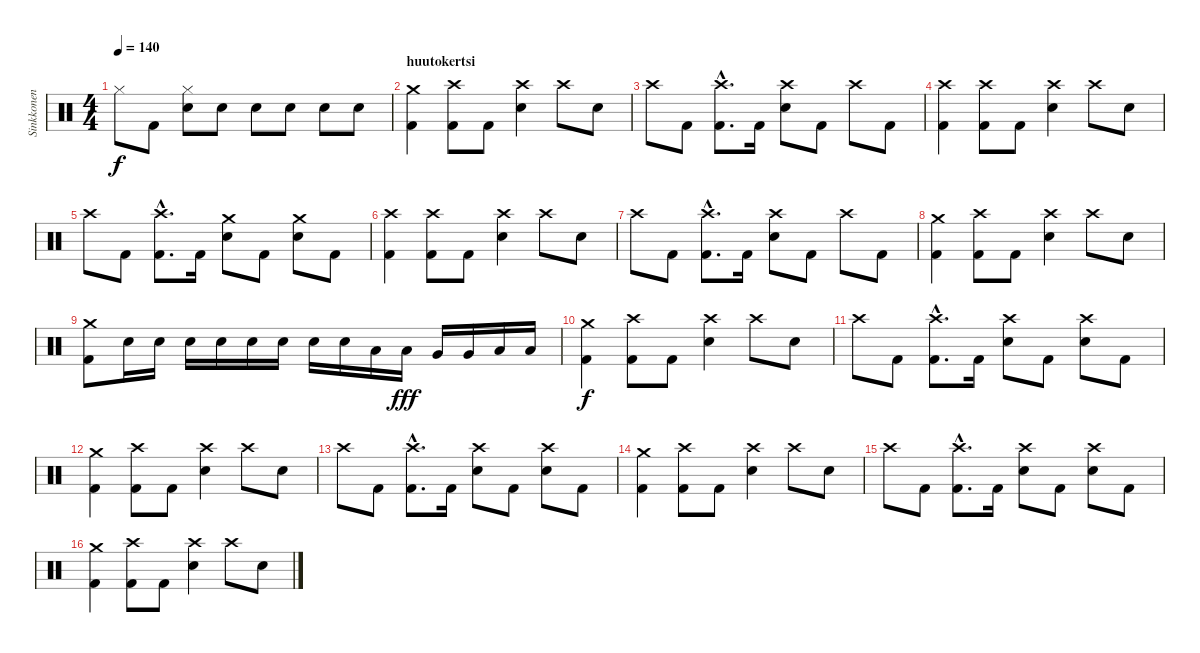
\track ("Sinkkonen" "Sinkkonen") {instrument percussion}
\staff {score}
\articulation defaults
\ts (4 4)
\tempo 140
\clef neutral
\ks c "Hi-Hat (closed)".8{dy f} "Kick (hit) 2".8
("Hi-Hat (closed)" "Snare (hit) 2").8 "Snare (hit) 2".8 "Snare (hit) 2".8 "Snare (hit) 2".8 "Snare (hit) 2".8 "Snare (hit) 2".8 |
\section ("" "huutokertsi")
("Kick (hit) 2" "Crash medium (hit)").4 ("Kick (hit) 2" "Crash high (hit)").8 "Kick (hit) 2".8 ("Crash high (hit)" "Snare (hit) 2").4 "Crash high (hit)".8 "Snare (hit) 2".8 |
"Crash high (hit)".8 "Kick (hit) 2".8 ("Kick (hit) 2"{hac} "Crash high (hit)"{hac}).8{d} "Kick (hit) 2".16 ("Crash high (hit)" "Snare (hit) 2").8 "Kick (hit) 2".8 "Crash high (hit)".8 "Kick (hit) 2".8 |
("Kick (hit) 2" "Crash high (hit)").4 ("Kick (hit) 2" "Crash high (hit)").8 "Kick (hit) 2".8 ("Crash high (hit)" "Snare (hit) 2").4 "Crash high (hit)".8 "Snare (hit) 2".8 |
"Crash high (hit)".8 "Kick (hit) 2".8 ("Kick (hit) 2"{hac} "Crash high (hit)"{hac}).8{d} "Kick (hit) 2".16 ("Crash medium (hit)" "Snare (hit) 2").8 "Kick (hit) 2".8 ("Crash medium (hit)" "Snare (hit) 2").8 "Kick (hit) 2".8 |
("Kick (hit) 2" "Crash high (hit)").4 ("Kick (hit) 2" "Crash high (hit)").8 "Kick (hit) 2".8 ("Crash high (hit)" "Snare (hit) 2").4 "Crash high (hit)".8 "Snare (hit) 2".8 |
"Crash high (hit)".8 "Kick (hit) 2".8 ("Kick (hit) 2"{hac} "Crash high (hit)"{hac}).8{d} "Kick (hit) 2".16 ("Crash high (hit)" "Snare (hit) 2").8 "Kick (hit) 2".8 "Crash high (hit)".8 "Kick (hit) 2".8 |
("Kick (hit) 2" "Crash medium (hit)").4 ("Kick (hit) 2" "Crash high (hit)").8 "Kick (hit) 2".8 ("Crash high (hit)" "Snare (hit) 2").4 "Crash high (hit)".8 "Snare (hit) 2".8 |
("Kick (hit) 2" "Crash medium (hit)").8 "Snare (hit) 2".16 "Snare (hit) 2".16 "Snare (hit) 2".16 "Snare (hit) 2".16 "Snare (hit) 2".16 "Snare (hit) 2".16 "Snare (hit) 2".16 "Snare (hit) 2".16 "Low Tom (hit)".16 "Low Tom (hit)".16{dy fff} "Very Low Tom (hit)".16 "Very Low Tom (hit)".16 "Low Floor Tom (hit)".16 "Low Floor Tom (hit)".16 |
("Kick (hit) 2" "Crash medium (hit)").4{dy f} ("Kick (hit) 2" "Crash high (hit)").8 "Kick (hit) 2".8 ("Crash high (hit)" "Snare (hit) 2").4 "Crash high (hit)".8 "Snare (hit) 2".8 |
"Crash high (hit)".8 "Kick (hit) 2".8 ("Kick (hit) 2"{hac} "Crash high (hit)"{hac}).8{d} "Kick (hit) 2".16 ("Crash high (hit)" "Snare (hit) 2").8 "Kick (hit) 2".8 ("Crash high (hit)" "Snare (hit) 2").8 "Kick (hit) 2".8 |
("Kick (hit) 2" "Crash medium (hit)").4 ("Kick (hit) 2" "Crash high (hit)").8 "Kick (hit) 2".8 ("Crash high (hit)" "Snare (hit) 2").4 "Crash high (hit)".8 "Snare (hit) 2".8 |
"Crash high (hit)".8 "Kick (hit) 2".8 ("Kick (hit) 2"{hac} "Crash high (hit)"{hac}).8{d} "Kick (hit) 2".16 ("Crash high (hit)" "Snare (hit) 2").8 "Kick (hit) 2".8 ("Crash high (hit)" "Snare (hit) 2").8 "Kick (hit) 2".8 |
("Kick (hit) 2" "Crash medium (hit)").4 ("Kick (hit) 2" "Crash high (hit)").8 "Kick (hit) 2".8 ("Crash high (hit)" "Snare (hit) 2").4 "Crash high (hit)".8 "Snare (hit) 2".8 |
"Crash high (hit)".8 "Kick (hit) 2".8 ("Kick (hit) 2"{hac} "Crash high (hit)"{hac}).8{d} "Kick (hit) 2".16 ("Crash high (hit)" "Snare (hit) 2").8 "Kick (hit) 2".8 ("Crash high (hit)" "Snare (hit) 2").8 "Kick (hit) 2".8 |
("Kick (hit) 2" "Crash medium (hit)").4 ("Kick (hit) 2" "Crash high (hit)").8 "Kick (hit) 2".8 ("Crash high (hit)" "Snare (hit) 2").4 "Crash high (hit)".8 "Snare (hit) 2".8
